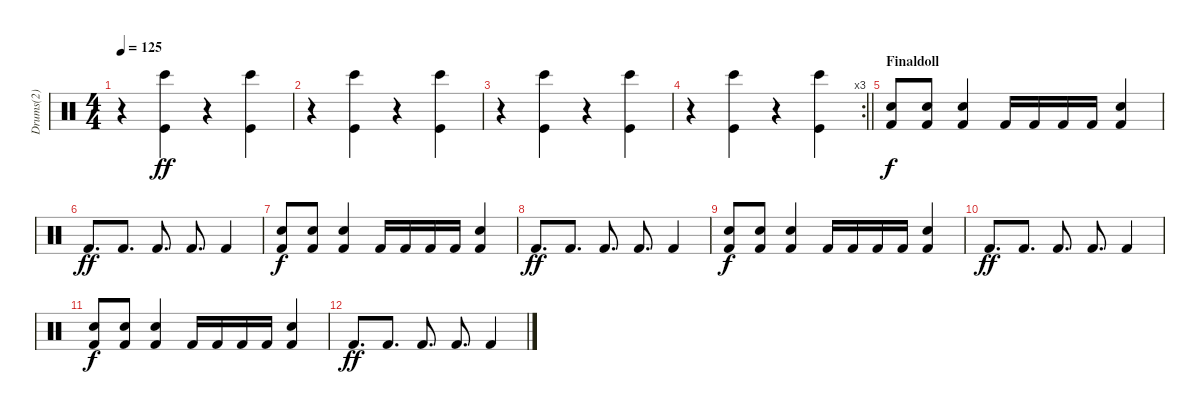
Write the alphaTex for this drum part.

\track ("Drums(2)" "Drums(2)") {instrument percussion}
\staff {score}
\articulation defaults
\ts (4 4)
\tempo 125
\clef neutral
\ks c
r.4{dy ff} ("Kick (hit)" "Bongo High (hit)").4 r.4 ("Kick (hit)" "Bongo High (hit)").4 |
r.4 ("Kick (hit)" "Bongo High (hit)").4 r.4 ("Kick (hit)" "Bongo High (hit)").4 |
r.4 ("Kick (hit)" "Bongo High (hit)").4 r.4 ("Kick (hit)" "Bongo High (hit)").4 |
\rc 3
\barLineRight lightlight
r.4 ("Kick (hit)" "Bongo High (hit)").4 r.4 ("Kick (hit)" "Bongo High (hit)").4 |
\section ("" "Finaldoll")
("Snare (hit) 2" "Kick (hit) 2").8{dy f} ("Snare (hit) 2" "Kick (hit) 2").8 ("Snare (hit) 2" "Kick (hit) 2").4 "Kick (hit) 2".16 "Kick (hit) 2".16 "Kick (hit) 2".16 "Kick (hit) 2".16 ("Snare (hit) 2" "Kick (hit) 2").4 |
"Kick (hit) 2".8{d dy ff} "Kick (hit) 2".8{d} "Kick (hit) 2".8{d} "Kick (hit) 2".8{d} "Kick (hit) 2".4 |
("Snare (hit) 2" "Kick (hit) 2").8{dy f} ("Snare (hit) 2" "Kick (hit) 2").8 ("Snare (hit) 2" "Kick (hit) 2").4 "Kick (hit) 2".16 "Kick (hit) 2".16 "Kick (hit) 2".16 "Kick (hit) 2".16 ("Snare (hit) 2" "Kick (hit) 2").4 |
"Kick (hit) 2".8{d dy ff} "Kick (hit) 2".8{d} "Kick (hit) 2".8{d} "Kick (hit) 2".8{d} "Kick (hit) 2".4 |
("Snare (hit) 2" "Kick (hit) 2").8{dy f} ("Snare (hit) 2" "Kick (hit) 2").8 ("Snare (hit) 2" "Kick (hit) 2").4 "Kick (hit) 2".16 "Kick (hit) 2".16 "Kick (hit) 2".16 "Kick (hit) 2".16 ("Snare (hit) 2" "Kick (hit) 2").4 |
"Kick (hit) 2".8{d dy ff} "Kick (hit) 2".8{d} "Kick (hit) 2".8{d} "Kick (hit) 2".8{d} "Kick (hit) 2".4 |
("Snare (hit) 2" "Kick (hit) 2").8{dy f} ("Snare (hit) 2" "Kick (hit) 2").8 ("Snare (hit) 2" "Kick (hit) 2").4 "Kick (hit) 2".16 "Kick (hit) 2".16 "Kick (hit) 2".16 "Kick (hit) 2".16 ("Snare (hit) 2" "Kick (hit) 2").4 |
"Kick (hit) 2".8{d dy ff} "Kick (hit) 2".8{d} "Kick (hit) 2".8{d} "Kick (hit) 2".8{d} "Kick (hit) 2".4
